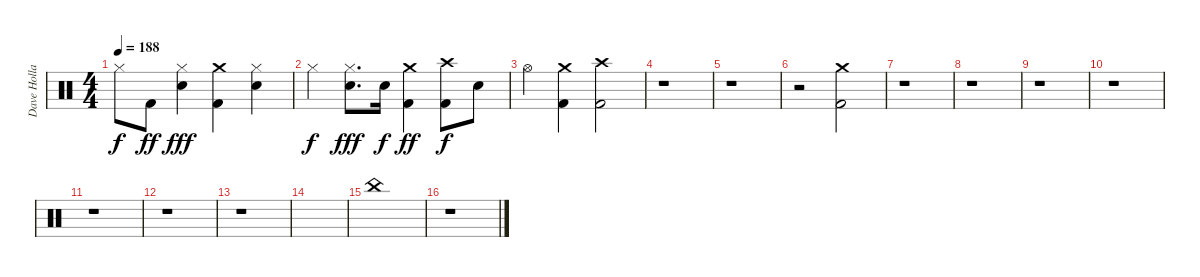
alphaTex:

\track ("Dave Holland" "Dave Holla") {instrument percussion}
\staff {score}
\articulation defaults
\ts (4 4)
\tempo 188
\clef neutral
\ks c "Hi-Hat (closed)".8{dy f} "Kick (hit) 2".8{dy ff}
("Snare (hit) 2" "Hi-Hat (closed)").4{dy fff} ("Kick (hit) 2" "Crash medium (hit)").4 ("Snare (hit) 2" "Hi-Hat (closed)").4 |
"Hi-Hat (closed)".4{dy f} ("Snare (hit) 2" "Hi-Hat (closed)").8{d dy fff} "Snare (hit) 2".16{dy f} ("Crash medium (hit)" "Kick (hit) 2").4{dy ff} ("Kick (hit) 2" "Crash high (hit)").8{dy f} "Snare (hit) 2".8 |
"Hi-Hat (open)".4 ("Kick (hit) 2" "Crash medium (hit)").4 ("Crash high (hit)" "Kick (hit) 2").2 |
r.1 |
r.1 |
r.2 ("Crash medium (hit)" "Kick (hit) 2").2 |
r.1 |
r.1 |
r.1 |
r.1 |
r.1 |
r.1 |
r.1 |
|
"China (hit)".1 |
r.1
